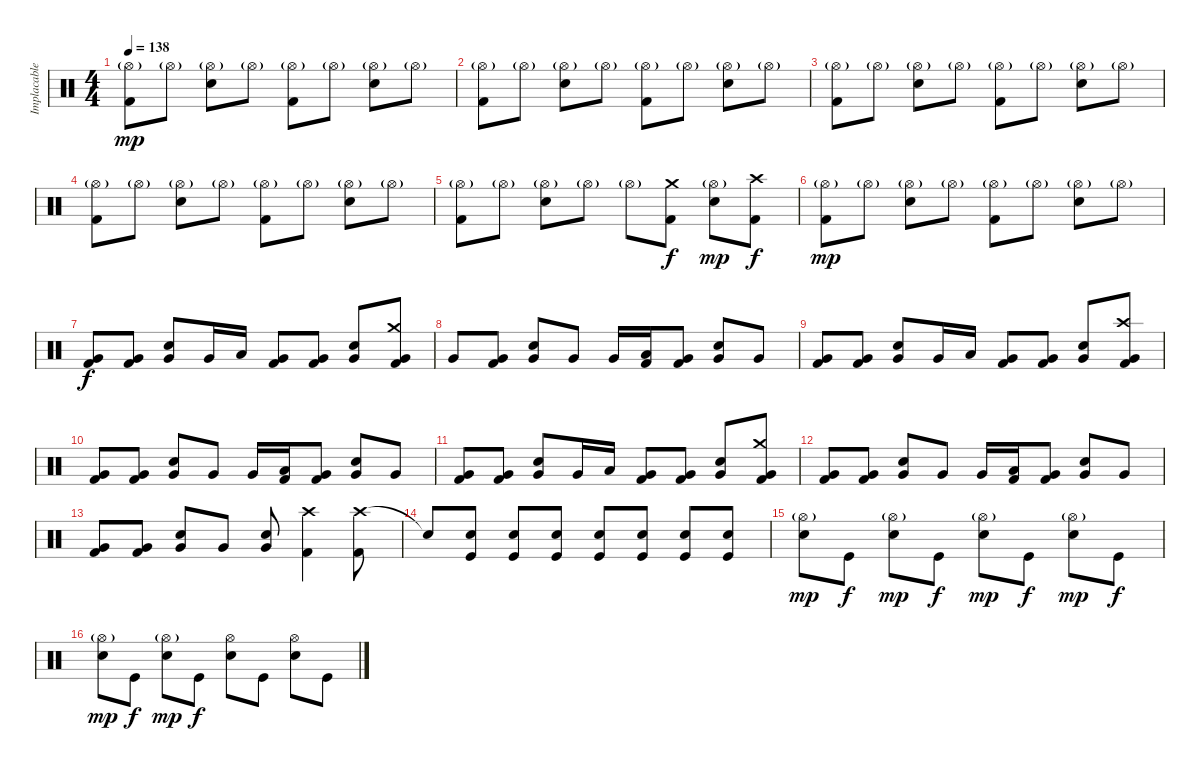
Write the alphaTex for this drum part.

\track ("Implacable Gonzalez" "Implacable") {instrument percussion}
\staff {score}
\articulation defaults
\ts (4 4)
\tempo 138
\clef neutral
\ks c
("Hi-Hat (open)"{g} "Kick (hit) 2").8{dy mp} "Hi-Hat (open)"{g}.8 ("Hi-Hat (open)"{g} "Snare (hit) 2").8 "Hi-Hat (open)"{g}.8 ("Hi-Hat (open)"{g} "Kick (hit) 2").8 "Hi-Hat (open)"{g}.8 ("Hi-Hat (open)"{g} "Snare (hit) 2").8 "Hi-Hat (open)"{g}.8 |
("Hi-Hat (open)"{g} "Kick (hit) 2").8 "Hi-Hat (open)"{g}.8 ("Hi-Hat (open)"{g} "Snare (hit) 2").8 "Hi-Hat (open)"{g}.8 ("Hi-Hat (open)"{g} "Kick (hit) 2").8 "Hi-Hat (open)"{g}.8 ("Hi-Hat (open)"{g} "Snare (hit) 2").8 "Hi-Hat (open)"{g}.8 |
("Hi-Hat (open)"{g} "Kick (hit) 2").8 "Hi-Hat (open)"{g}.8 ("Hi-Hat (open)"{g} "Snare (hit) 2").8 "Hi-Hat (open)"{g}.8 ("Hi-Hat (open)"{g} "Kick (hit) 2").8 "Hi-Hat (open)"{g}.8 ("Hi-Hat (open)"{g} "Snare (hit) 2").8 "Hi-Hat (open)"{g}.8 |
("Hi-Hat (open)"{g} "Kick (hit) 2").8 "Hi-Hat (open)"{g}.8 ("Hi-Hat (open)"{g} "Snare (hit) 2").8 "Hi-Hat (open)"{g}.8 ("Hi-Hat (open)"{g} "Kick (hit) 2").8 "Hi-Hat (open)"{g}.8 ("Hi-Hat (open)"{g} "Snare (hit) 2").8 "Hi-Hat (open)"{g}.8 |
("Hi-Hat (open)"{g} "Kick (hit) 2").8 "Hi-Hat (open)"{g}.8 ("Hi-Hat (open)"{g} "Snare (hit) 2").8 "Hi-Hat (open)"{g}.8 "Hi-Hat (open)"{g}.8 ("Crash medium (hit)" "Kick (hit) 2").8{dy f} ("Hi-Hat (open)"{g} "Snare (hit) 2").8{dy mp} ("Crash high (hit)" "Kick (hit) 2").8{dy f} |
("Hi-Hat (open)"{g} "Kick (hit) 2").8{dy mp} "Hi-Hat (open)"{g}.8 ("Hi-Hat (open)"{g} "Snare (hit) 2").8 "Hi-Hat (open)"{g}.8 ("Hi-Hat (open)"{g} "Kick (hit) 2").8 "Hi-Hat (open)"{g}.8 ("Hi-Hat (open)"{g} "Snare (hit) 2").8 "Hi-Hat (open)"{g}.8 |
("Very Low Tom (hit)" "Kick (hit) 2").8{dy f} ("Very Low Tom (hit)" "Kick (hit) 2").8 ("Snare (hit) 2" "Very Low Tom (hit)").8 "Very Low Tom (hit)".16 "Low Tom (hit)".16 ("Very Low Tom (hit)" "Kick (hit) 2").8 ("Very Low Tom (hit)" "Kick (hit) 2").8 ("Snare (hit) 2" "Very Low Tom (hit)").8 ("Crash medium (hit)" "Very Low Tom (hit)" "Kick (hit) 2").8 |
"Very Low Tom (hit)".8 ("Very Low Tom (hit)" "Kick (hit) 2").8 ("Snare (hit) 2" "Very Low Tom (hit)").8 "Very Low Tom (hit)".8 "Very Low Tom (hit)".16 ("Low Tom (hit)" "Kick (hit) 2").16 ("Very Low Tom (hit)" "Kick (hit) 2").8 ("Snare (hit) 2" "Very Low Tom (hit)").8 "Very Low Tom (hit)".8 |
("Very Low Tom (hit)" "Kick (hit) 2").8 ("Very Low Tom (hit)" "Kick (hit) 2").8 ("Snare (hit) 2" "Very Low Tom (hit)").8 "Very Low Tom (hit)".16 "Low Tom (hit)".16 ("Very Low Tom (hit)" "Kick (hit) 2").8 ("Very Low Tom (hit)" "Kick (hit) 2").8 ("Snare (hit) 2" "Very Low Tom (hit)").8 ("Crash high (hit)" "Very Low Tom (hit)" "Kick (hit) 2").8 |
("Very Low Tom (hit)" "Kick (hit) 2").8 ("Very Low Tom (hit)" "Kick (hit) 2").8 ("Snare (hit) 2" "Very Low Tom (hit)").8 "Very Low Tom (hit)".8 "Very Low Tom (hit)".16 ("Low Tom (hit)" "Kick (hit) 2").16 ("Very Low Tom (hit)" "Kick (hit) 2").8 ("Snare (hit) 2" "Very Low Tom (hit)").8 "Very Low Tom (hit)".8 |
("Very Low Tom (hit)" "Kick (hit) 2").8 ("Very Low Tom (hit)" "Kick (hit) 2").8 ("Snare (hit) 2" "Very Low Tom (hit)").8 "Very Low Tom (hit)".16 "Low Tom (hit)".16 ("Very Low Tom (hit)" "Kick (hit) 2").8 ("Very Low Tom (hit)" "Kick (hit) 2").8 ("Snare (hit) 2" "Very Low Tom (hit)").8 ("Crash medium (hit)" "Very Low Tom (hit)" "Kick (hit) 2").8 |
("Very Low Tom (hit)" "Kick (hit) 2").8 ("Very Low Tom (hit)" "Kick (hit) 2").8 ("Snare (hit) 2" "Very Low Tom (hit)").8 "Very Low Tom (hit)".8 "Very Low Tom (hit)".16 ("Low Tom (hit)" "Kick (hit) 2").16 ("Very Low Tom (hit)" "Kick (hit) 2").8 ("Snare (hit) 2" "Very Low Tom (hit)").8 "Very Low Tom (hit)".8 |
("Very Low Tom (hit)" "Kick (hit) 2").8 ("Very Low Tom (hit)" "Kick (hit) 2").8 ("Snare (hit) 2" "Very Low Tom (hit)").8 "Very Low Tom (hit)".8 ("Snare (hit) 2" "Very Low Tom (hit)").8 ("Crash high (hit)" "Kick (hit) 2").4 ("Crash high (hit)" "Kick (hit) 2").8 |
"Snare (hit)"{t}.8 ("Snare (hit) 2" "Kick (hit)").8 ("Snare (hit) 2" "Kick (hit)").8 ("Snare (hit) 2" "Kick (hit)").8 ("Snare (hit) 2" "Kick (hit)").8 ("Snare (hit) 2" "Kick (hit)").8 ("Snare (hit) 2" "Kick (hit)").8 ("Snare (hit) 2" "Kick (hit)").8 |
("Hi-Hat (open)"{g} "Snare (hit) 2").8{dy mp} "Kick (hit)".8{dy f} ("Hi-Hat (open)"{g} "Snare (hit) 2").8{dy mp} "Kick (hit)".8{dy f} ("Hi-Hat (open)"{g} "Snare (hit) 2").8{dy mp} "Kick (hit)".8{dy f} ("Hi-Hat (open)"{g} "Snare (hit) 2").8{dy mp} "Kick (hit)".8{dy f} |
("Hi-Hat (open)"{g} "Snare (hit) 2").8{dy mp} "Kick (hit)".8{dy f} ("Hi-Hat (open)"{g} "Snare (hit) 2").8{dy mp} "Kick (hit)".8{dy f} ("Hi-Hat (open)" "Snare (hit) 2").8 "Kick (hit)".8 ("Hi-Hat (open)" "Snare (hit) 2").8 "Kick (hit)".8
